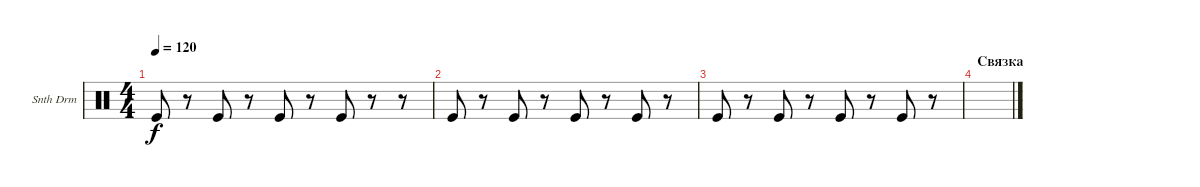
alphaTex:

\defaultSystemsLayout 4
\bracketExtendMode groupsimilarinstruments
\firstSystemTrackNameOrientation horizontal
\otherSystemsTrackNameOrientation horizontal
\track ("Synth Drum" "Snth Drm") {instrument percussion}
\staff {score}
\articulation defaults
\ts (4 4)
\tempo 120
\clef neutral
\ks c "Kick (hit)".8{dy f}
r.8 "Kick (hit)".8 r.8 "Kick (hit)".8 r.8 "Kick (hit)".8 r.8 r.8 |
"Kick (hit)".8 r.8 "Kick (hit)".8 r.8 "Kick (hit)".8 r.8 "Kick (hit)".8 r.8 |
"Kick (hit)".8 r.8 "Kick (hit)".8 r.8 "Kick (hit)".8 r.8 "Kick (hit)".8 r.8 |
\section ("" "Связка")
